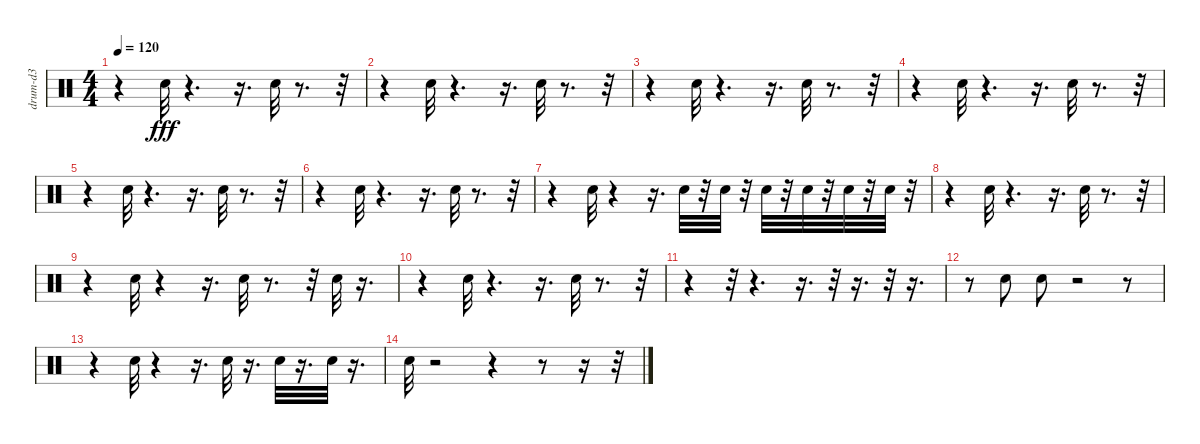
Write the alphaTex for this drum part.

\track ("drum-d3" "drum-d3") {instrument percussion}
\staff {score}
\articulation defaults
\ts (4 4)
\tempo 120
\clef neutral
\ks c
r.4{dy fff} "Snare (hit) 2".32 r.4{d} r.16{d} "Snare (hit) 2".32 r.8{d} r.32 |
r.4 "Snare (hit) 2".32 r.4{d} r.16{d} "Snare (hit) 2".32 r.8{d} r.32 |
r.4 "Snare (hit) 2".32 r.4{d} r.16{d} "Snare (hit) 2".32 r.8{d} r.32 |
r.4 "Snare (hit) 2".32 r.4{d} r.16{d} "Snare (hit) 2".32 r.8{d} r.32 |
r.4 "Snare (hit) 2".32 r.4{d} r.16{d} "Snare (hit) 2".32 r.8{d} r.32 |
r.4 "Snare (hit) 2".32 r.4{d} r.16{d} "Snare (hit) 2".32 r.8{d} r.32 |
r.4 "Snare (hit) 2".32 r.4 r.16{d} "Snare (hit) 2".32 r.32 "Snare (hit) 2".32 r.32 "Snare (hit) 2".32 r.32 "Snare (hit) 2".32 r.32 "Snare (hit) 2".32 r.32 "Snare (hit) 2".32 r.32 |
r.4 "Snare (hit) 2".32 r.4{d} r.16{d} "Snare (hit) 2".32 r.8{d} r.32 |
r.4 "Snare (hit) 2".32 r.4 r.16{d} "Snare (hit) 2".32 r.8{d} r.32 "Snare (hit) 2".32 r.16{d} |
r.4 "Snare (hit) 2".32 r.4{d} r.16{d} "Snare (hit) 2".32 r.8{d} r.32 |
r.4 r.32 r.4{d} r.16{d} r.32 r.16{d} r.32 r.16{d} |
r.8 "Snare (hit) 2".8 "Snare (hit) 2".8 r.2 r.8 |
r.4 "Snare (hit) 2".32 r.4 r.16{d} "Snare (hit) 2".32 r.16{d} "Snare (hit) 2".32 r.16{d} "Snare (hit) 2".32 r.16{d} |
"Snare (hit) 2".32 r.2 r.4 r.8 r.16 r.32
